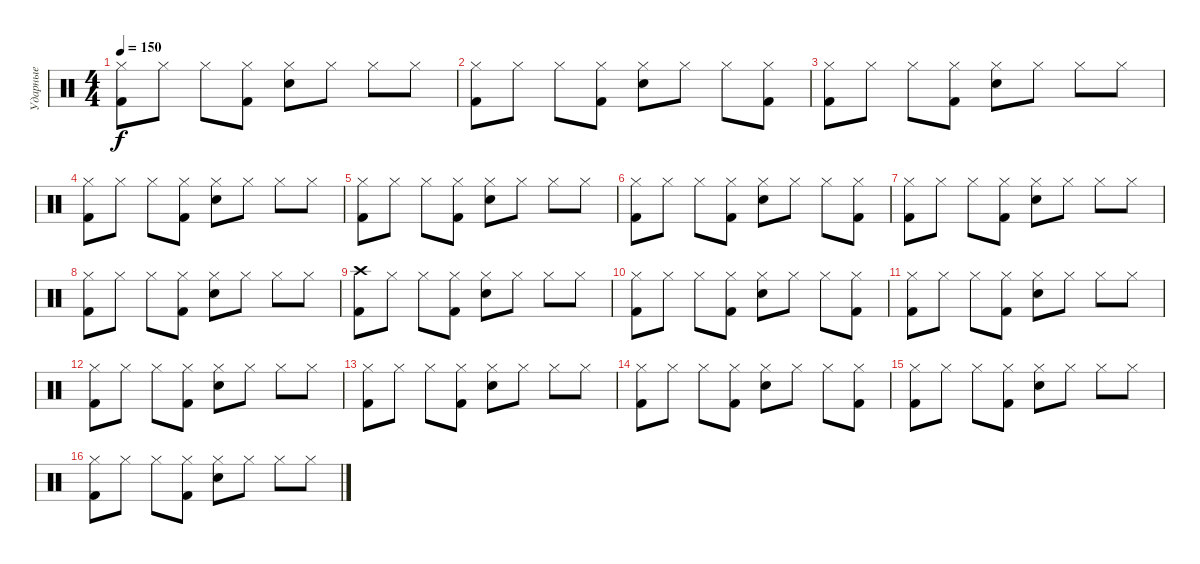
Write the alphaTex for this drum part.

\track ("Ударные" "Ударные") {instrument percussion}
\staff {score}
\articulation defaults
\ts (4 4)
\tempo 150
\clef neutral
\ks c
("Hi-Hat (closed)" "Kick (hit) 2").8{dy f} "Hi-Hat (closed)".8 "Hi-Hat (closed)".8 ("Hi-Hat (closed)" "Kick (hit) 2").8 ("Hi-Hat (closed)" "Electric Snare (hit)").8 "Hi-Hat (closed)".8 "Hi-Hat (closed)".8 "Hi-Hat (closed)".8 |
("Hi-Hat (closed)" "Kick (hit) 2").8 "Hi-Hat (closed)".8 "Hi-Hat (closed)".8 ("Hi-Hat (closed)" "Kick (hit) 2").8 ("Hi-Hat (closed)" "Electric Snare (hit)").8 "Hi-Hat (closed)".8 "Hi-Hat (closed)".8 ("Hi-Hat (closed)" "Kick (hit) 2").8 |
("Hi-Hat (closed)" "Kick (hit) 2").8 "Hi-Hat (closed)".8 "Hi-Hat (closed)".8 ("Hi-Hat (closed)" "Kick (hit) 2").8 ("Hi-Hat (closed)" "Electric Snare (hit)").8 "Hi-Hat (closed)".8 "Hi-Hat (closed)".8 "Hi-Hat (closed)".8 |
("Hi-Hat (closed)" "Kick (hit) 2").8 "Hi-Hat (closed)".8 "Hi-Hat (closed)".8 ("Hi-Hat (closed)" "Kick (hit) 2").8 ("Hi-Hat (closed)" "Electric Snare (hit)").8 "Hi-Hat (closed)".8 "Hi-Hat (closed)".8 "Hi-Hat (closed)".8 |
("Hi-Hat (closed)" "Kick (hit) 2").8 "Hi-Hat (closed)".8 "Hi-Hat (closed)".8 ("Hi-Hat (closed)" "Kick (hit) 2").8 ("Hi-Hat (closed)" "Electric Snare (hit)").8 "Hi-Hat (closed)".8 "Hi-Hat (closed)".8 "Hi-Hat (closed)".8 |
("Hi-Hat (closed)" "Kick (hit) 2").8 "Hi-Hat (closed)".8 "Hi-Hat (closed)".8 ("Hi-Hat (closed)" "Kick (hit) 2").8 ("Hi-Hat (closed)" "Electric Snare (hit)").8 "Hi-Hat (closed)".8 "Hi-Hat (closed)".8 ("Hi-Hat (closed)" "Kick (hit) 2").8 |
("Hi-Hat (closed)" "Kick (hit) 2").8 "Hi-Hat (closed)".8 "Hi-Hat (closed)".8 ("Hi-Hat (closed)" "Kick (hit) 2").8 ("Hi-Hat (closed)" "Electric Snare (hit)").8 "Hi-Hat (closed)".8 "Hi-Hat (closed)".8 "Hi-Hat (closed)".8 |
("Hi-Hat (closed)" "Kick (hit) 2").8 "Hi-Hat (closed)".8 "Hi-Hat (closed)".8 ("Hi-Hat (closed)" "Kick (hit) 2").8 ("Hi-Hat (closed)" "Electric Snare (hit)").8 "Hi-Hat (closed)".8 "Hi-Hat (closed)".8 "Hi-Hat (closed)".8 |
("Crash high (hit)" "Kick (hit) 2").8 "Hi-Hat (closed)".8 "Hi-Hat (closed)".8 ("Hi-Hat (closed)" "Kick (hit) 2").8 ("Hi-Hat (closed)" "Electric Snare (hit)").8 "Hi-Hat (closed)".8 "Hi-Hat (closed)".8 "Hi-Hat (closed)".8 |
("Hi-Hat (closed)" "Kick (hit) 2").8 "Hi-Hat (closed)".8 "Hi-Hat (closed)".8 ("Hi-Hat (closed)" "Kick (hit) 2").8 ("Hi-Hat (closed)" "Electric Snare (hit)").8 "Hi-Hat (closed)".8 "Hi-Hat (closed)".8 ("Hi-Hat (closed)" "Kick (hit) 2").8 |
("Hi-Hat (closed)" "Kick (hit) 2").8 "Hi-Hat (closed)".8 "Hi-Hat (closed)".8 ("Hi-Hat (closed)" "Kick (hit) 2").8 ("Hi-Hat (closed)" "Electric Snare (hit)").8 "Hi-Hat (closed)".8 "Hi-Hat (closed)".8 "Hi-Hat (closed)".8 |
("Hi-Hat (closed)" "Kick (hit) 2").8 "Hi-Hat (closed)".8 "Hi-Hat (closed)".8 ("Hi-Hat (closed)" "Kick (hit) 2").8 ("Hi-Hat (closed)" "Electric Snare (hit)").8 "Hi-Hat (closed)".8 "Hi-Hat (closed)".8 "Hi-Hat (closed)".8 |
("Hi-Hat (closed)" "Kick (hit) 2").8 "Hi-Hat (closed)".8 "Hi-Hat (closed)".8 ("Hi-Hat (closed)" "Kick (hit) 2").8 ("Hi-Hat (closed)" "Electric Snare (hit)").8 "Hi-Hat (closed)".8 "Hi-Hat (closed)".8 "Hi-Hat (closed)".8 |
("Hi-Hat (closed)" "Kick (hit) 2").8 "Hi-Hat (closed)".8 "Hi-Hat (closed)".8 ("Hi-Hat (closed)" "Kick (hit) 2").8 ("Hi-Hat (closed)" "Electric Snare (hit)").8 "Hi-Hat (closed)".8 "Hi-Hat (closed)".8 ("Hi-Hat (closed)" "Kick (hit) 2").8 |
("Hi-Hat (closed)" "Kick (hit) 2").8 "Hi-Hat (closed)".8 "Hi-Hat (closed)".8 ("Hi-Hat (closed)" "Kick (hit) 2").8 ("Hi-Hat (closed)" "Electric Snare (hit)").8 "Hi-Hat (closed)".8 "Hi-Hat (closed)".8 "Hi-Hat (closed)".8 |
("Hi-Hat (closed)" "Kick (hit) 2").8 "Hi-Hat (closed)".8 "Hi-Hat (closed)".8 ("Hi-Hat (closed)" "Kick (hit) 2").8 ("Hi-Hat (closed)" "Electric Snare (hit)").8 "Hi-Hat (closed)".8 "Hi-Hat (closed)".8 "Hi-Hat (closed)".8
